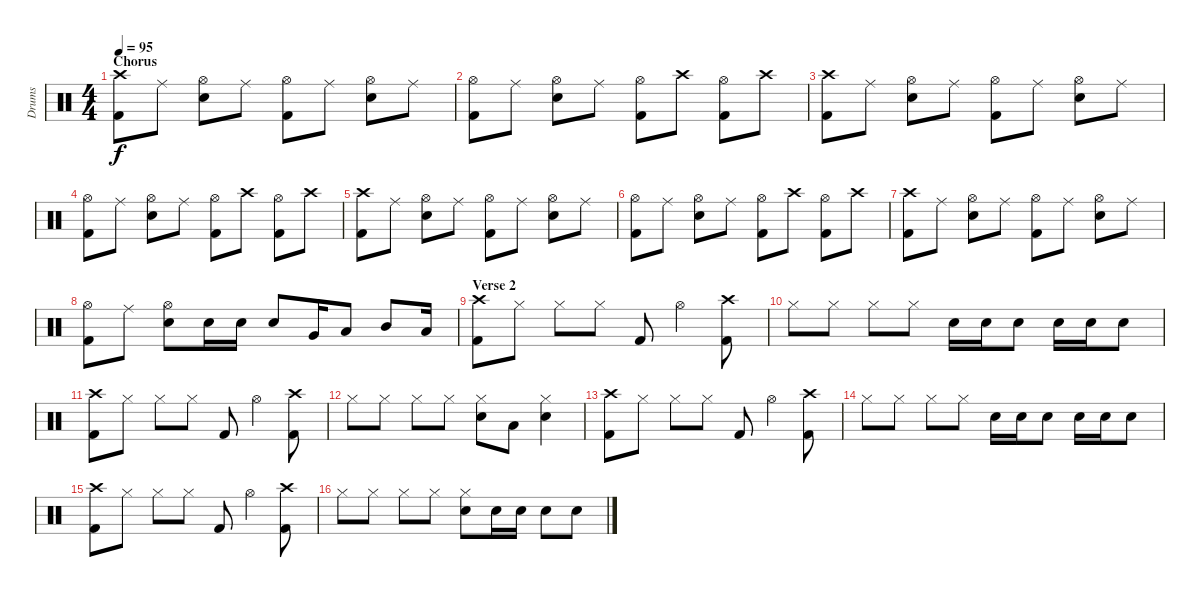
\track ("Drums" "Drums") {instrument percussion}
\staff {score}
\articulation defaults
\ts (4 4)
\section ("" "Chorus")
\tempo 95
\clef neutral
\ks c
("Kick (hit) 2" "Crash high (hit)").8{dy f} "Ride (middle)".8 ("Snare (hit) 2" "Hi-Hat (open)").8 "Ride (middle)".8 ("Kick (hit) 2" "Hi-Hat (open)").8 "Ride (middle)".8 ("Snare (hit) 2" "Hi-Hat (open)").8 "Ride (middle)".8 |
("Kick (hit) 2" "Hi-Hat (open)").8 "Ride (middle)".8 ("Snare (hit) 2" "Hi-Hat (open)").8 "Ride (middle)".8 ("Kick (hit) 2" "Hi-Hat (open)").8 "Crash high (hit)".8 ("Kick (hit) 2" "Hi-Hat (open)").8 "Crash high (hit)".8 |
("Kick (hit) 2" "Crash high (hit)").8 "Ride (middle)".8 ("Snare (hit) 2" "Hi-Hat (open)").8 "Ride (middle)".8 ("Kick (hit) 2" "Hi-Hat (open)").8 "Ride (middle)".8 ("Snare (hit) 2" "Hi-Hat (open)").8 "Ride (middle)".8 |
("Kick (hit) 2" "Hi-Hat (open)").8 "Ride (middle)".8 ("Snare (hit) 2" "Hi-Hat (open)").8 "Ride (middle)".8 ("Kick (hit) 2" "Hi-Hat (open)").8 "Crash high (hit)".8 ("Kick (hit) 2" "Hi-Hat (open)").8 "Crash high (hit)".8 |
("Kick (hit) 2" "Crash high (hit)").8 "Ride (middle)".8 ("Snare (hit) 2" "Hi-Hat (open)").8 "Ride (middle)".8 ("Kick (hit) 2" "Hi-Hat (open)").8 "Ride (middle)".8 ("Snare (hit) 2" "Hi-Hat (open)").8 "Ride (middle)".8 |
("Kick (hit) 2" "Hi-Hat (open)").8 "Ride (middle)".8 ("Snare (hit) 2" "Hi-Hat (open)").8 "Ride (middle)".8 ("Kick (hit) 2" "Hi-Hat (open)").8 "Crash high (hit)".8 ("Kick (hit) 2" "Hi-Hat (open)").8 "Crash high (hit)".8 |
("Kick (hit) 2" "Crash high (hit)").8 "Ride (middle)".8 ("Snare (hit) 2" "Hi-Hat (open)").8 "Ride (middle)".8 ("Kick (hit) 2" "Hi-Hat (open)").8 "Ride (middle)".8 ("Snare (hit) 2" "Hi-Hat (open)").8 "Ride (middle)".8 |
("Kick (hit) 2" "Hi-Hat (open)").8 "Ride (middle)".8 ("Snare (hit) 2" "Hi-Hat (open)").8 "Snare (hit) 2".16 "Snare (hit) 2".16 "Snare (hit) 2".8 "Very Low Tom (hit)".16 "Low Tom (hit)".8 "Mid Tom (hit)".8 "Low Tom (hit)".16 |
\section ("" "Verse 2")
("Kick (hit) 2" "Crash high (hit)").8 "Hi-Hat (closed)".8 "Hi-Hat (closed)".8 "Hi-Hat (closed)".8 "Kick (hit) 2".8 "Hi-Hat (open)".4 ("Kick (hit) 2" "Crash high (hit)").8 |
"Hi-Hat (closed)".8 "Hi-Hat (closed)".8 "Hi-Hat (closed)".8 "Hi-Hat (closed)".8 "Snare (hit) 2".16 "Snare (hit) 2".16 "Snare (hit) 2".8 "Snare (hit) 2".16 "Snare (hit) 2".16 "Snare (hit) 2".8 |
("Kick (hit) 2" "Crash high (hit)").8 "Hi-Hat (closed)".8 "Hi-Hat (closed)".8 "Hi-Hat (closed)".8 "Kick (hit) 2".8 "Hi-Hat (open)".4 ("Kick (hit) 2" "Crash high (hit)").8 |
"Hi-Hat (closed)".8 "Hi-Hat (closed)".8 "Hi-Hat (closed)".8 "Hi-Hat (closed)".8 ("Snare (hit) 2" "Hi-Hat (closed)").8 "Low Tom (hit)".8 ("Snare (hit) 2" "Hi-Hat (closed)").4 |
("Kick (hit) 2" "Crash high (hit)").8 "Hi-Hat (closed)".8 "Hi-Hat (closed)".8 "Hi-Hat (closed)".8 "Kick (hit) 2".8 "Hi-Hat (open)".4 ("Kick (hit) 2" "Crash high (hit)").8 |
"Hi-Hat (closed)".8 "Hi-Hat (closed)".8 "Hi-Hat (closed)".8 "Hi-Hat (closed)".8 "Snare (hit) 2".16 "Snare (hit) 2".16 "Snare (hit) 2".8 "Snare (hit) 2".16 "Snare (hit) 2".16 "Snare (hit) 2".8 |
("Kick (hit) 2" "Crash high (hit)").8 "Hi-Hat (closed)".8 "Hi-Hat (closed)".8 "Hi-Hat (closed)".8 "Kick (hit) 2".8 "Hi-Hat (open)".4 ("Kick (hit) 2" "Crash high (hit)").8 |
"Hi-Hat (closed)".8 "Hi-Hat (closed)".8 "Hi-Hat (closed)".8 "Hi-Hat (closed)".8 ("Snare (hit) 2" "Hi-Hat (closed)").8 "Snare (hit) 2".16 "Snare (hit) 2".16 "Snare (hit) 2".8 "Snare (hit) 2".8
